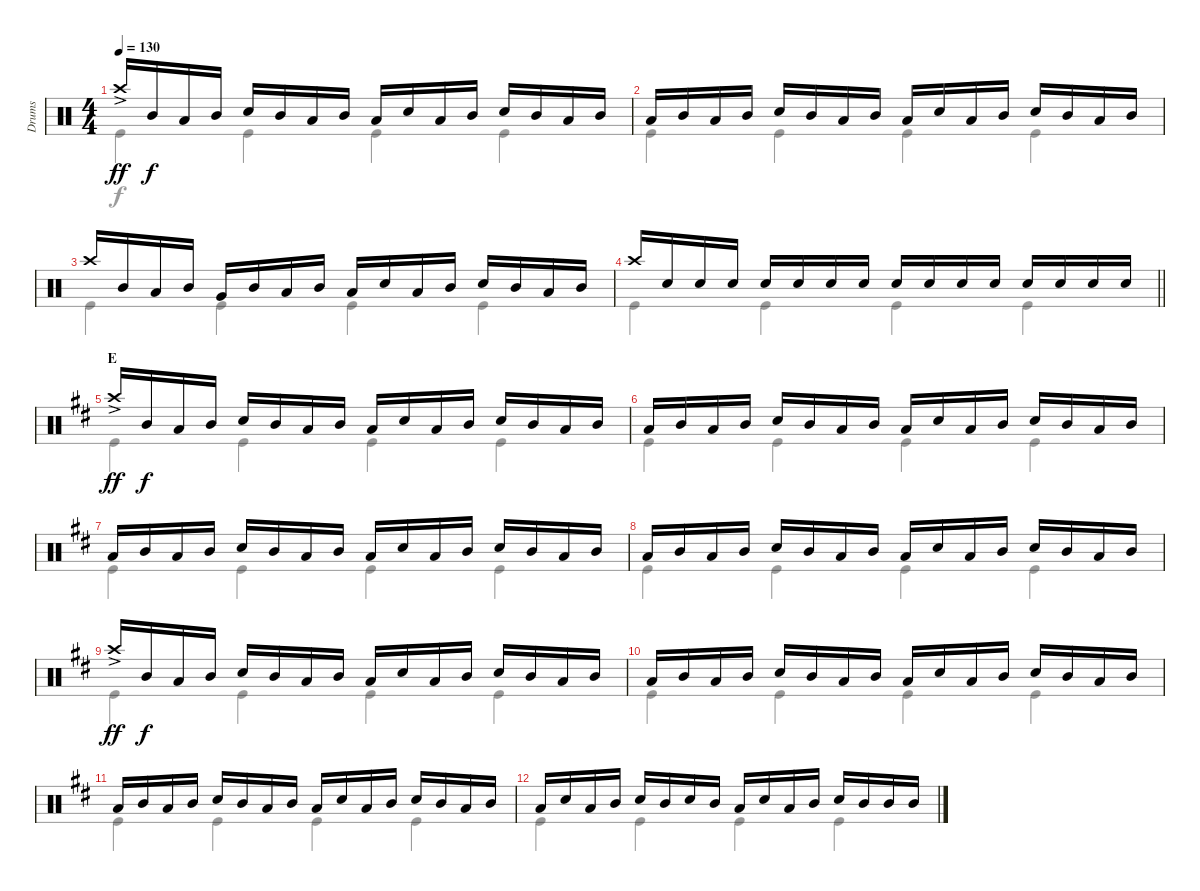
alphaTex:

\track ("Drums" "Drums") {instrument percussion}
\staff {score}
\articulation defaults
\voice
\ts (4 4)
\tempo 130
\clef neutral
\ks c "Crash high (hit)"{ac}.16{dy ff} "Mid Tom (hit)".16{dy f} "Low Tom (hit)".16 "Mid Tom (hit)".16 "Snare (hit) 2".16 "Mid Tom (hit)".16 "Low Tom (hit)".16 "Mid Tom (hit)".16 "Low Tom (hit)".16 "Snare (hit) 2".16 "Low Tom (hit)".16 "Mid Tom (hit)".16 "Snare (hit) 2".16 "Mid Tom (hit)".16 "Low Tom (hit)".16 "Mid Tom (hit)".16
|
"Low Tom (hit)".16 "Mid Tom (hit)".16 "Low Tom (hit)".16 "Mid Tom (hit)".16 "Snare (hit) 2".16 "Mid Tom (hit)".16 "Low Tom (hit)".16 "Mid Tom (hit)".16 "Low Tom (hit)".16 "Snare (hit) 2".16 "Low Tom (hit)".16 "Mid Tom (hit)".16 "Snare (hit) 2".16 "Mid Tom (hit)".16 "Low Tom (hit)".16 "Mid Tom (hit)".16 |
"Crash high (hit)".16 "Mid Tom (hit)".16 "Low Tom (hit)".16 "Mid Tom (hit)".16 "Very Low Tom (hit)".16 "Mid Tom (hit)".16 "Low Tom (hit)".16 "Mid Tom (hit)".16 "Low Tom (hit)".16 "Snare (hit) 2".16 "Low Tom (hit)".16 "Mid Tom (hit)".16 "Snare (hit) 2".16 "Mid Tom (hit)".16 "Low Tom (hit)".16 "Mid Tom (hit)".16 |
\barLineRight lightlight "Crash high (hit)".16 "Snare (hit) 2".16 "Snare (hit) 2".16 "Snare (hit) 2".16 "Snare (hit) 2".16 "Snare (hit) 2".16 "Snare (hit) 2".16 "Snare (hit) 2".16 "Snare (hit) 2".16 "Snare (hit) 2".16 "Snare (hit) 2".16 "Snare (hit) 2".16 "Snare (hit) 2".16 "Snare (hit) 2".16 "Snare (hit) 2".16 "Snare (hit) 2".16
|
\section ("" "E")
\ks d "Crash high (hit)"{ac}.16{dy ff} "Mid Tom (hit)".16{dy f} "Low Tom (hit)".16 "Mid Tom (hit)".16 "Snare (hit) 2".16 "Mid Tom (hit)".16 "Low Tom (hit)".16 "Mid Tom (hit)".16 "Low Tom (hit)".16 "Snare (hit) 2".16 "Low Tom (hit)".16 "Mid Tom (hit)".16 "Snare (hit) 2".16 "Mid Tom (hit)".16 "Low Tom (hit)".16 "Mid Tom (hit)".16
|
"Low Tom (hit)".16 "Mid Tom (hit)".16 "Low Tom (hit)".16 "Mid Tom (hit)".16 "Snare (hit) 2".16 "Mid Tom (hit)".16 "Low Tom (hit)".16 "Mid Tom (hit)".16 "Low Tom (hit)".16 "Snare (hit) 2".16 "Low Tom (hit)".16 "Mid Tom (hit)".16 "Snare (hit) 2".16 "Mid Tom (hit)".16 "Low Tom (hit)".16 "Mid Tom (hit)".16 |
"Low Tom (hit)".16 "Mid Tom (hit)".16 "Low Tom (hit)".16 "Mid Tom (hit)".16 "Snare (hit) 2".16 "Mid Tom (hit)".16 "Low Tom (hit)".16 "Mid Tom (hit)".16 "Low Tom (hit)".16 "Snare (hit) 2".16 "Low Tom (hit)".16 "Mid Tom (hit)".16 "Snare (hit) 2".16 "Mid Tom (hit)".16 "Low Tom (hit)".16 "Mid Tom (hit)".16 |
"Low Tom (hit)".16 "Mid Tom (hit)".16 "Low Tom (hit)".16 "Mid Tom (hit)".16 "Snare (hit) 2".16 "Mid Tom (hit)".16 "Low Tom (hit)".16 "Mid Tom (hit)".16 "Low Tom (hit)".16 "Snare (hit) 2".16 "Low Tom (hit)".16 "Mid Tom (hit)".16 "Snare (hit) 2".16 "Mid Tom (hit)".16 "Low Tom (hit)".16 "Mid Tom (hit)".16 |
"Crash high (hit)"{ac}.16{dy ff} "Mid Tom (hit)".16{dy f} "Low Tom (hit)".16 "Mid Tom (hit)".16 "Snare (hit) 2".16 "Mid Tom (hit)".16 "Low Tom (hit)".16 "Mid Tom (hit)".16 "Low Tom (hit)".16 "Snare (hit) 2".16 "Low Tom (hit)".16 "Mid Tom (hit)".16 "Snare (hit) 2".16 "Mid Tom (hit)".16 "Low Tom (hit)".16 "Mid Tom (hit)".16 |
"Low Tom (hit)".16 "Mid Tom (hit)".16 "Low Tom (hit)".16 "Mid Tom (hit)".16 "Snare (hit) 2".16 "Mid Tom (hit)".16 "Low Tom (hit)".16 "Mid Tom (hit)".16 "Low Tom (hit)".16 "Snare (hit) 2".16 "Low Tom (hit)".16 "Mid Tom (hit)".16 "Snare (hit) 2".16 "Mid Tom (hit)".16 "Low Tom (hit)".16 "Mid Tom (hit)".16 |
"Low Tom (hit)".16 "Mid Tom (hit)".16 "Low Tom (hit)".16 "Mid Tom (hit)".16 "Snare (hit) 2".16 "Mid Tom (hit)".16 "Low Tom (hit)".16 "Mid Tom (hit)".16 "Low Tom (hit)".16 "Snare (hit) 2".16 "Low Tom (hit)".16 "Mid Tom (hit)".16 "Snare (hit) 2".16 "Mid Tom (hit)".16 "Low Tom (hit)".16 "Mid Tom (hit)".16 |
"Low Tom (hit)".16 "Snare (hit) 2".16 "Low Tom (hit)".16 "Mid Tom (hit)".16 "Snare (hit) 2".16 "Mid Tom (hit)".16 "Snare (hit) 2".16 "Mid Tom (hit)".16 "Low Tom (hit)".16 "Snare (hit) 2".16 "Low Tom (hit)".16 "Mid Tom (hit)".16 "Snare (hit) 2".16 "Mid Tom (hit)".16 "Mid Tom (hit)".16 "Mid Tom (hit)".16 |
|
|
|
\voice
\clef neutral
\ottava regular
\simile none
\ks c "Kick (hit)".4{dy f} "Kick (hit)".4 "Kick (hit)".4 "Kick (hit)".4
|
"Kick (hit)".4 "Kick (hit)".4 "Kick (hit)".4 "Kick (hit)".4 |
"Kick (hit)".4 "Kick (hit)".4 "Kick (hit)".4 "Kick (hit)".4 |
\barLineRight lightlight "Kick (hit)".4 "Kick (hit)".4 "Kick (hit)".4 "Kick (hit)".4
|
\ks d "Kick (hit)".4 "Kick (hit)".4 "Kick (hit)".4 "Kick (hit)".4
|
"Kick (hit)".4 "Kick (hit)".4 "Kick (hit)".4 "Kick (hit)".4 |
"Kick (hit)".4 "Kick (hit)".4 "Kick (hit)".4 "Kick (hit)".4 |
"Kick (hit)".4 "Kick (hit)".4 "Kick (hit)".4 "Kick (hit)".4 |
"Kick (hit)".4 "Kick (hit)".4 "Kick (hit)".4 "Kick (hit)".4 |
"Kick (hit)".4 "Kick (hit)".4 "Kick (hit)".4 "Kick (hit)".4 |
"Kick (hit)".4 "Kick (hit)".4 "Kick (hit)".4 "Kick (hit)".4 |
"Kick (hit)".4 "Kick (hit)".4 "Kick (hit)".4 "Kick (hit)".4 |
|
|
|
